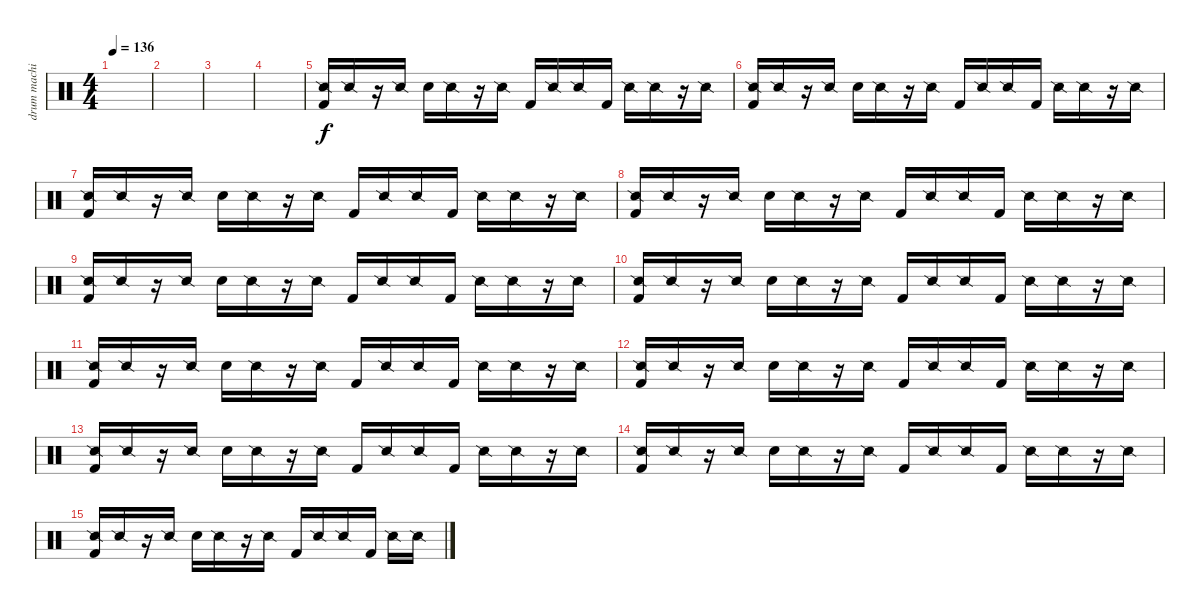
\track ("drum machine" "drum machi") {instrument percussion}
\staff {score}
\articulation defaults
\ts (4 4)
\tempo 136
\clef neutral
\ks c
|
|
|
|
("Snare (side stick) 2" "Kick (hit) 2").16 "Snare (side stick) 2".16 r.16 "Snare (side stick) 2".16 "Electric Snare (hit)".16 "Snare (side stick) 2".16 r.16 "Snare (side stick) 2".16 "Kick (hit) 2".16 "Snare (side stick) 2".16 "Snare (side stick) 2".16 "Kick (hit) 2".16 "Snare (side stick) 2".16 "Snare (side stick) 2".16 r.16 "Snare (side stick) 2".16 |
("Snare (side stick) 2" "Kick (hit) 2").16 "Snare (side stick) 2".16 r.16 "Snare (side stick) 2".16 "Electric Snare (hit)".16 "Snare (side stick) 2".16 r.16 "Snare (side stick) 2".16 "Kick (hit) 2".16 "Snare (side stick) 2".16 "Snare (side stick) 2".16 "Kick (hit) 2".16 "Snare (side stick) 2".16 "Snare (side stick) 2".16 r.16 "Snare (side stick) 2".16 |
("Snare (side stick) 2" "Kick (hit) 2").16 "Snare (side stick) 2".16 r.16 "Snare (side stick) 2".16 "Electric Snare (hit)".16 "Snare (side stick) 2".16 r.16 "Snare (side stick) 2".16 "Kick (hit) 2".16 "Snare (side stick) 2".16 "Snare (side stick) 2".16 "Kick (hit) 2".16 "Snare (side stick) 2".16 "Snare (side stick) 2".16 r.16 "Snare (side stick) 2".16 |
("Snare (side stick) 2" "Kick (hit) 2").16 "Snare (side stick) 2".16 r.16 "Snare (side stick) 2".16 "Electric Snare (hit)".16 "Snare (side stick) 2".16 r.16 "Snare (side stick) 2".16 "Kick (hit) 2".16 "Snare (side stick) 2".16 "Snare (side stick) 2".16 "Kick (hit) 2".16 "Snare (side stick) 2".16 "Snare (side stick) 2".16 r.16 "Snare (side stick) 2".16 |
("Snare (side stick) 2" "Kick (hit) 2").16 "Snare (side stick) 2".16 r.16 "Snare (side stick) 2".16 "Electric Snare (hit)".16 "Snare (side stick) 2".16 r.16 "Snare (side stick) 2".16 "Kick (hit) 2".16 "Snare (side stick) 2".16 "Snare (side stick) 2".16 "Kick (hit) 2".16 "Snare (side stick) 2".16 "Snare (side stick) 2".16 r.16 "Snare (side stick) 2".16 |
("Snare (side stick) 2" "Kick (hit) 2").16 "Snare (side stick) 2".16 r.16 "Snare (side stick) 2".16 "Electric Snare (hit)".16 "Snare (side stick) 2".16 r.16 "Snare (side stick) 2".16 "Kick (hit) 2".16 "Snare (side stick) 2".16 "Snare (side stick) 2".16 "Kick (hit) 2".16 "Snare (side stick) 2".16 "Snare (side stick) 2".16 r.16 "Snare (side stick) 2".16 |
("Snare (side stick) 2" "Kick (hit) 2").16 "Snare (side stick) 2".16 r.16 "Snare (side stick) 2".16 "Electric Snare (hit)".16 "Snare (side stick) 2".16 r.16 "Snare (side stick) 2".16 "Kick (hit) 2".16 "Snare (side stick) 2".16 "Snare (side stick) 2".16 "Kick (hit) 2".16 "Snare (side stick) 2".16 "Snare (side stick) 2".16 r.16 "Snare (side stick) 2".16 |
("Snare (side stick) 2" "Kick (hit) 2").16 "Snare (side stick) 2".16 r.16 "Snare (side stick) 2".16 "Electric Snare (hit)".16 "Snare (side stick) 2".16 r.16 "Snare (side stick) 2".16 "Kick (hit) 2".16 "Snare (side stick) 2".16 "Snare (side stick) 2".16 "Kick (hit) 2".16 "Snare (side stick) 2".16 "Snare (side stick) 2".16 r.16 "Snare (side stick) 2".16 |
("Snare (side stick) 2" "Kick (hit) 2").16 "Snare (side stick) 2".16 r.16 "Snare (side stick) 2".16 "Electric Snare (hit)".16 "Snare (side stick) 2".16 r.16 "Snare (side stick) 2".16 "Kick (hit) 2".16 "Snare (side stick) 2".16 "Snare (side stick) 2".16 "Kick (hit) 2".16 "Snare (side stick) 2".16 "Snare (side stick) 2".16 r.16 "Snare (side stick) 2".16 |
("Snare (side stick) 2" "Kick (hit) 2").16 "Snare (side stick) 2".16 r.16 "Snare (side stick) 2".16 "Electric Snare (hit)".16 "Snare (side stick) 2".16 r.16 "Snare (side stick) 2".16 "Kick (hit) 2".16 "Snare (side stick) 2".16 "Snare (side stick) 2".16 "Kick (hit) 2".16 "Snare (side stick) 2".16 "Snare (side stick) 2".16 r.16 "Snare (side stick) 2".16 |
("Snare (side stick) 2" "Kick (hit) 2").16 "Snare (side stick) 2".16 r.16 "Snare (side stick) 2".16 "Electric Snare (hit)".16 "Snare (side stick) 2".16 r.16 "Snare (side stick) 2".16 "Kick (hit) 2".16 "Snare (side stick) 2".16 "Snare (side stick) 2".16 "Kick (hit) 2".16 "Snare (side stick) 2".16 "Snare (side stick) 2".16
